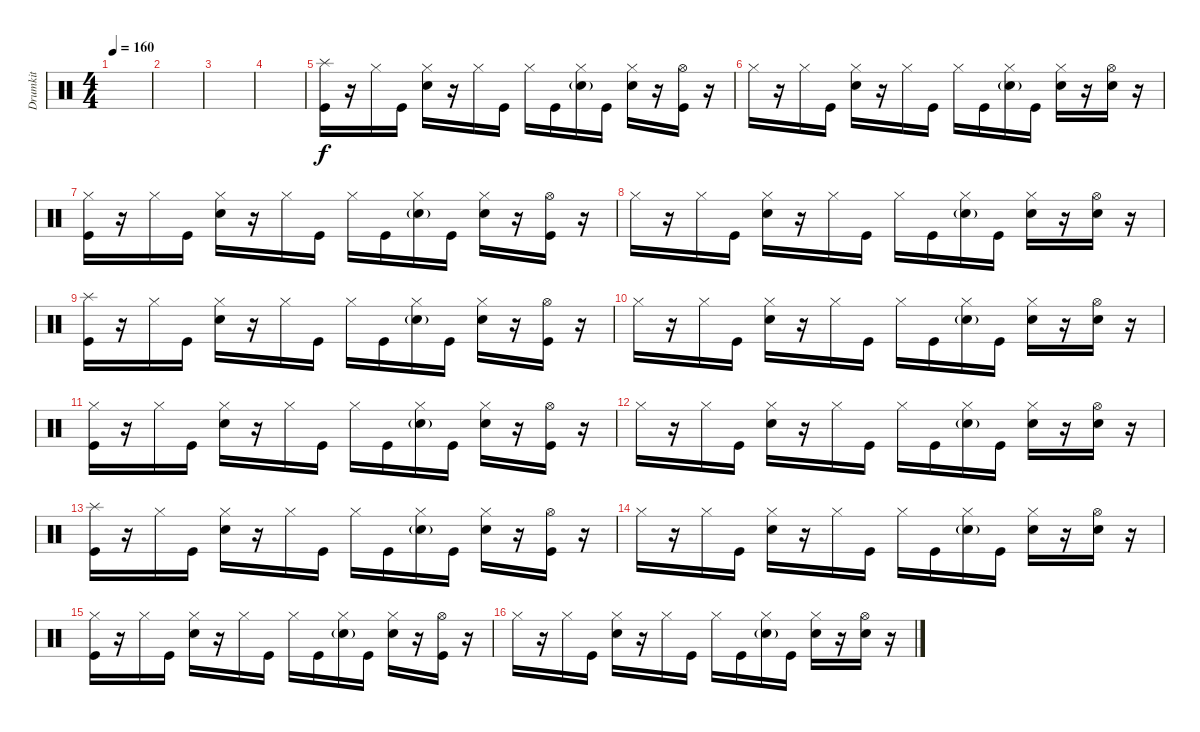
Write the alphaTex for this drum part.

\track ("Drumkit" "Drumkit") {instrument percussion}
\staff {score}
\articulation defaults
\ts (4 4)
\tempo 160
\clef neutral
\ks c
|
|
|
|
("Splash (hit)" "Kick (hit)").16 r.16 "Hi-Hat (closed)".16 "Kick (hit)".16 ("Snare (hit) 2" "Hi-Hat (closed)").16 r.16 "Hi-Hat (closed)".16 "Kick (hit)".16 "Hi-Hat (closed)".16 "Kick (hit)".16 ("Snare (hit) 2"{g} "Hi-Hat (closed)").16 "Kick (hit)".16 ("Snare (hit) 2" "Hi-Hat (closed)").16 r.16 ("Hi-Hat (open)" "Kick (hit)").16 r.16 |
"Hi-Hat (closed)".16 r.16 "Hi-Hat (closed)".16 "Kick (hit)".16 ("Snare (hit) 2" "Hi-Hat (closed)").16 r.16 "Hi-Hat (closed)".16 "Kick (hit)".16 "Hi-Hat (closed)".16 "Kick (hit)".16 ("Hi-Hat (closed)" "Snare (hit) 2"{g}).16 "Kick (hit)".16 ("Snare (hit) 2" "Hi-Hat (closed)").16 r.16 ("Snare (hit) 2" "Hi-Hat (open)").16 r.16 |
("Kick (hit)" "Hi-Hat (closed)").16 r.16 "Hi-Hat (closed)".16 "Kick (hit)".16 ("Snare (hit) 2" "Hi-Hat (closed)").16 r.16 "Hi-Hat (closed)".16 "Kick (hit)".16 "Hi-Hat (closed)".16 "Kick (hit)".16 ("Snare (hit) 2"{g} "Hi-Hat (closed)").16 "Kick (hit)".16 ("Snare (hit) 2" "Hi-Hat (closed)").16 r.16 ("Hi-Hat (open)" "Kick (hit)").16 r.16 |
"Hi-Hat (closed)".16 r.16 "Hi-Hat (closed)".16 "Kick (hit)".16 ("Snare (hit) 2" "Hi-Hat (closed)").16 r.16 "Hi-Hat (closed)".16 "Kick (hit)".16 "Hi-Hat (closed)".16 "Kick (hit)".16 ("Hi-Hat (closed)" "Snare (hit) 2"{g}).16 "Kick (hit)".16 ("Snare (hit) 2" "Hi-Hat (closed)").16 r.16 ("Snare (hit) 2" "Hi-Hat (open)").16 r.16 |
("Splash (hit)" "Kick (hit)").16 r.16 "Hi-Hat (closed)".16 "Kick (hit)".16 ("Snare (hit) 2" "Hi-Hat (closed)").16 r.16 "Hi-Hat (closed)".16 "Kick (hit)".16 "Hi-Hat (closed)".16 "Kick (hit)".16 ("Snare (hit) 2"{g} "Hi-Hat (closed)").16 "Kick (hit)".16 ("Snare (hit) 2" "Hi-Hat (closed)").16 r.16 ("Hi-Hat (open)" "Kick (hit)").16 r.16 |
"Hi-Hat (closed)".16 r.16 "Hi-Hat (closed)".16 "Kick (hit)".16 ("Snare (hit) 2" "Hi-Hat (closed)").16 r.16 "Hi-Hat (closed)".16 "Kick (hit)".16 "Hi-Hat (closed)".16 "Kick (hit)".16 ("Hi-Hat (closed)" "Snare (hit) 2"{g}).16 "Kick (hit)".16 ("Snare (hit) 2" "Hi-Hat (closed)").16 r.16 ("Snare (hit) 2" "Hi-Hat (open)").16 r.16 |
("Kick (hit)" "Hi-Hat (closed)").16 r.16 "Hi-Hat (closed)".16 "Kick (hit)".16 ("Snare (hit) 2" "Hi-Hat (closed)").16 r.16 "Hi-Hat (closed)".16 "Kick (hit)".16 "Hi-Hat (closed)".16 "Kick (hit)".16 ("Snare (hit) 2"{g} "Hi-Hat (closed)").16 "Kick (hit)".16 ("Snare (hit) 2" "Hi-Hat (closed)").16 r.16 ("Hi-Hat (open)" "Kick (hit)").16 r.16 |
"Hi-Hat (closed)".16 r.16 "Hi-Hat (closed)".16 "Kick (hit)".16 ("Snare (hit) 2" "Hi-Hat (closed)").16 r.16 "Hi-Hat (closed)".16 "Kick (hit)".16 "Hi-Hat (closed)".16 "Kick (hit)".16 ("Hi-Hat (closed)" "Snare (hit) 2"{g}).16 "Kick (hit)".16 ("Snare (hit) 2" "Hi-Hat (closed)").16 r.16 ("Snare (hit) 2" "Hi-Hat (open)").16 r.16 |
("Splash (hit)" "Kick (hit)").16 r.16 "Hi-Hat (closed)".16 "Kick (hit)".16 ("Snare (hit) 2" "Hi-Hat (closed)").16 r.16 "Hi-Hat (closed)".16 "Kick (hit)".16 "Hi-Hat (closed)".16 "Kick (hit)".16 ("Snare (hit) 2"{g} "Hi-Hat (closed)").16 "Kick (hit)".16 ("Snare (hit) 2" "Hi-Hat (closed)").16 r.16 ("Hi-Hat (open)" "Kick (hit)").16 r.16 |
"Hi-Hat (closed)".16 r.16 "Hi-Hat (closed)".16 "Kick (hit)".16 ("Snare (hit) 2" "Hi-Hat (closed)").16 r.16 "Hi-Hat (closed)".16 "Kick (hit)".16 "Hi-Hat (closed)".16 "Kick (hit)".16 ("Hi-Hat (closed)" "Snare (hit) 2"{g}).16 "Kick (hit)".16 ("Snare (hit) 2" "Hi-Hat (closed)").16 r.16 ("Snare (hit) 2" "Hi-Hat (open)").16 r.16 |
("Kick (hit)" "Hi-Hat (closed)").16 r.16 "Hi-Hat (closed)".16 "Kick (hit)".16 ("Snare (hit) 2" "Hi-Hat (closed)").16 r.16 "Hi-Hat (closed)".16 "Kick (hit)".16 "Hi-Hat (closed)".16 "Kick (hit)".16 ("Snare (hit) 2"{g} "Hi-Hat (closed)").16 "Kick (hit)".16 ("Snare (hit) 2" "Hi-Hat (closed)").16 r.16 ("Hi-Hat (open)" "Kick (hit)").16 r.16 |
"Hi-Hat (closed)".16 r.16 "Hi-Hat (closed)".16 "Kick (hit)".16 ("Snare (hit) 2" "Hi-Hat (closed)").16 r.16 "Hi-Hat (closed)".16 "Kick (hit)".16 "Hi-Hat (closed)".16 "Kick (hit)".16 ("Hi-Hat (closed)" "Snare (hit) 2"{g}).16 "Kick (hit)".16 ("Snare (hit) 2" "Hi-Hat (closed)").16 r.16 ("Snare (hit) 2" "Hi-Hat (open)").16 r.16
